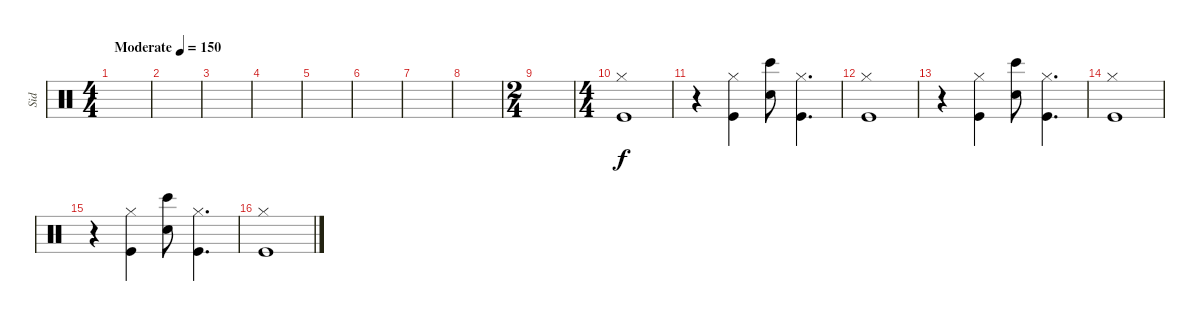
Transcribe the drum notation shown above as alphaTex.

\track ("Sid" "Sid") {instrument percussion}
\staff {score}
\articulation defaults
\ts (4 4)
\tempo (150 "Moderate")
\clef neutral
\ks c
|
|
|
|
|
|
|
|
\ts (2 4)
|
\ts (4 4)
("Hi-Hat (closed)" "Kick (hit)").1 |
r.4 ("Hi-Hat (closed)" "Kick (hit)").4 ("Snare (hit) 2" "Bongo High (hit)").8 ("Hi-Hat (closed)" "Kick (hit)").4{d} |
("Hi-Hat (closed)" "Kick (hit)").1 |
r.4 ("Hi-Hat (closed)" "Kick (hit)").4 ("Snare (hit) 2" "Bongo High (hit)").8 ("Hi-Hat (closed)" "Kick (hit)").4{d} |
("Hi-Hat (closed)" "Kick (hit)").1 |
r.4 ("Hi-Hat (closed)" "Kick (hit)").4 ("Snare (hit) 2" "Bongo High (hit)").8 ("Hi-Hat (closed)" "Kick (hit)").4{d} |
("Hi-Hat (closed)" "Kick (hit)").1
